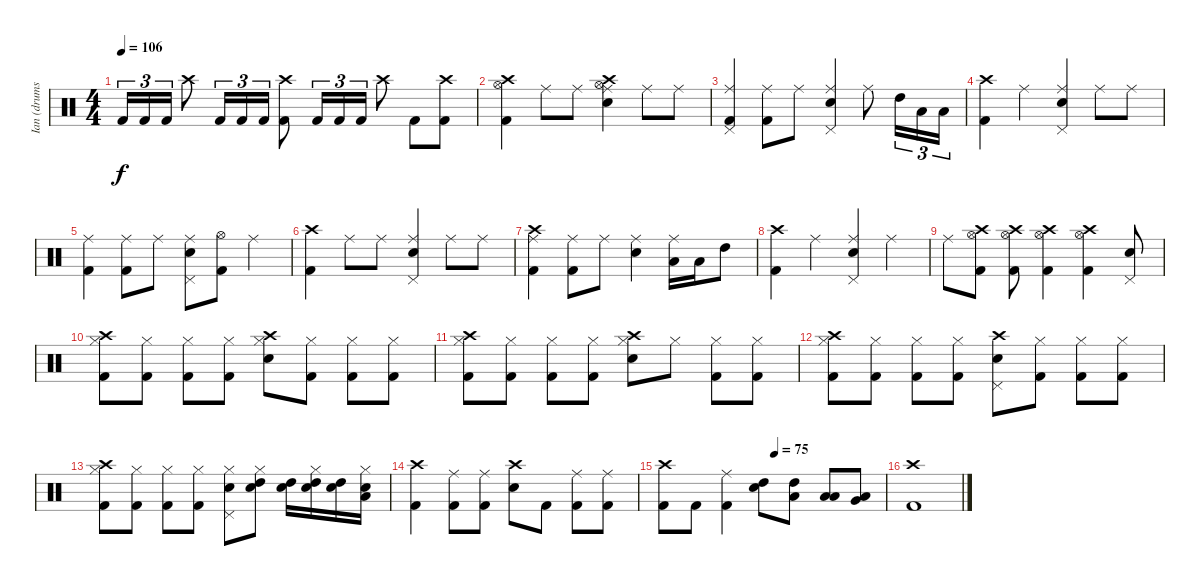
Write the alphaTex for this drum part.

\track ("Ian (drums)" "Ian (drums") {instrument percussion}
\staff {score}
\articulation defaults
\ts (4 4)
\tempo 106
\clef neutral
\ks c "Kick (hit) 2".16{tu (3 2) dy f} "Kick (hit) 2".16{tu (3 2)} "Kick (hit) 2".16{tu (3 2)} "Crash high (hit)".8 "Kick (hit) 2".16{tu (3 2)} "Kick (hit) 2".16{tu (3 2)} "Kick (hit) 2".16{tu (3 2)}
("Kick (hit) 2" "Crash high (hit)").8 "Kick (hit) 2".16{tu (3 2)} "Kick (hit) 2".16{tu (3 2)} "Kick (hit) 2".16{tu (3 2)} "Crash high (hit)".8 "Kick (hit) 2".8 ("Kick (hit) 2" "Crash high (hit)").8 |
("Kick (hit) 2" "Hi-Hat (open)" "Crash high (hit)").4 "Ride (middle)".8 "Ride (middle)".8 ("Snare (hit) 2" "Hi-Hat (open)" "Crash high (hit)" "Ride (middle)").4 "Ride (middle)".8 "Ride (middle)".8 |
("Kick (hit) 2" "Pedal Hi-Hat (hit)" "Ride (middle)").4 ("Kick (hit) 2" "Ride (middle)").8 "Ride (middle)".8 ("Snare (hit) 2" "Pedal Hi-Hat (hit)" "Ride (middle)").4 "Ride (middle)".8 "High Tom (hit)".16{tu (3 2)} "Low Tom (hit)".16{tu (3 2)} "Low Floor Tom (hit)".16{tu (3 2)} |
("Kick (hit) 2" "Crash high (hit)").4 "Ride (middle)".4 ("Snare (hit) 2" "Pedal Hi-Hat (hit)" "Ride (middle)").4 "Ride (middle)".8 "Ride (middle)".8 |
("Kick (hit) 2" "Ride (middle)").4 ("Kick (hit) 2" "Ride (middle)").8 "Ride (middle)".8 ("Snare (hit) 2" "Pedal Hi-Hat (hit)" "Ride (middle)").8 ("Kick (hit) 2" "Hi-Hat (open)").8 "Ride (middle)".4 |
("Kick (hit) 2" "Crash high (hit)").4 "Ride (middle)".8 "Ride (middle)".8 ("Snare (hit) 2" "Pedal Hi-Hat (hit)" "Ride (middle)").4 "Ride (middle)".8 "Ride (middle)".8 |
("Kick (hit) 2" "Crash high (hit)" "Ride (middle)").4 ("Kick (hit) 2" "Ride (middle)").8 "Ride (middle)".8 ("Snare (hit) 2" "Ride (middle)").4 ("Low Floor Tom (hit)" "Ride (middle)").16 "Low Tom (hit)".16 "High Tom (hit)".8 |
("Kick (hit) 2" "Crash high (hit)").4 "Ride (middle)".4 ("Snare (hit) 2" "Pedal Hi-Hat (hit)" "Ride (middle)").4 "Ride (middle)".4 |
"Ride (middle)".8 ("Kick (hit) 2" "Hi-Hat (open)" "Crash high (hit)").8 ("Kick (hit) 2" "Hi-Hat (open)" "Crash high (hit)").8 ("Kick (hit) 2" "Hi-Hat (open)" "Crash high (hit)").4 ("Kick (hit) 2" "Hi-Hat (open)" "Crash high (hit)").4 ("Snare (hit) 2" "Pedal Hi-Hat (hit)").8 |
("Kick (hit) 2" "Hi-Hat (closed)" "Crash high (hit)").8 ("Kick (hit) 2" "Hi-Hat (closed)").8 ("Kick (hit) 2" "Hi-Hat (closed)").8 ("Kick (hit) 2" "Hi-Hat (closed)").8 ("Snare (hit) 2" "Hi-Hat (closed)" "Crash high (hit)").8 ("Kick (hit) 2" "Hi-Hat (closed)").8 ("Kick (hit) 2" "Hi-Hat (closed)").8 ("Kick (hit) 2" "Hi-Hat (closed)").8 |
("Kick (hit) 2" "Hi-Hat (closed)" "Crash high (hit)").8 ("Kick (hit) 2" "Hi-Hat (closed)").8 ("Kick (hit) 2" "Hi-Hat (closed)").8 ("Kick (hit) 2" "Hi-Hat (closed)").8 ("Snare (hit) 2" "Hi-Hat (closed)" "Crash high (hit)").8 "Hi-Hat (closed)".8 ("Kick (hit) 2" "Hi-Hat (closed)").8 ("Kick (hit) 2" "Hi-Hat (closed)").8 |
("Kick (hit) 2" "Hi-Hat (closed)" "Crash high (hit)").8 ("Kick (hit) 2" "Hi-Hat (closed)").8 ("Kick (hit) 2" "Hi-Hat (closed)").8 ("Kick (hit) 2" "Hi-Hat (closed)").8 ("Snare (hit) 2" "Pedal Hi-Hat (hit)" "Crash high (hit)").8 ("Kick (hit) 2" "Hi-Hat (closed)").8 ("Kick (hit) 2" "Hi-Hat (closed)").8 ("Kick (hit) 2" "Hi-Hat (closed)").8 |
("Kick (hit) 2" "Hi-Hat (closed)" "Crash high (hit)").8 ("Kick (hit) 2" "Hi-Hat (closed)").8 ("Kick (hit) 2" "Hi-Hat (closed)").8 ("Kick (hit) 2" "Hi-Hat (closed)").8 ("Snare (hit) 2" "Hi-Hat (closed)" "Pedal Hi-Hat (hit)").8 ("Snare (hit) 2" "Hi-Hat (closed)" "High Tom (hit)").8 ("Snare (hit) 2" "High Tom (hit)").16 ("Snare (hit) 2" "Hi-Hat (closed)" "High Tom (hit)").16 ("Snare (hit) 2" "High Tom (hit)").16 ("Snare (hit) 2" "Hi-Hat (closed)" "Low Tom (hit)").16 |
("Kick (hit) 2" "Crash high (hit)").4 ("Kick (hit) 2" "Ride (middle)").8 ("Kick (hit) 2" "Ride (middle)").8 ("Snare (hit) 2" "Crash high (hit)").8 "Kick (hit) 2".8 ("Kick (hit) 2" "Ride (middle)").8 ("Kick (hit) 2" "Ride (middle)").8 |
\tempo (75 0.5)
("Kick (hit) 2" "Crash high (hit)").8 "Kick (hit) 2".8 ("Kick (hit) 2" "Ride (middle)").4 ("Snare (hit) 2" "High Tom (hit)").8 ("Low Tom (hit)" "High Tom (hit)").8 ("Low Floor Tom (hit)" "Low Tom (hit)").8 ("Low Floor Tom (hit)" "Very Low Tom (hit)").8 |
("Kick (hit) 2" "Crash high (hit)").1
